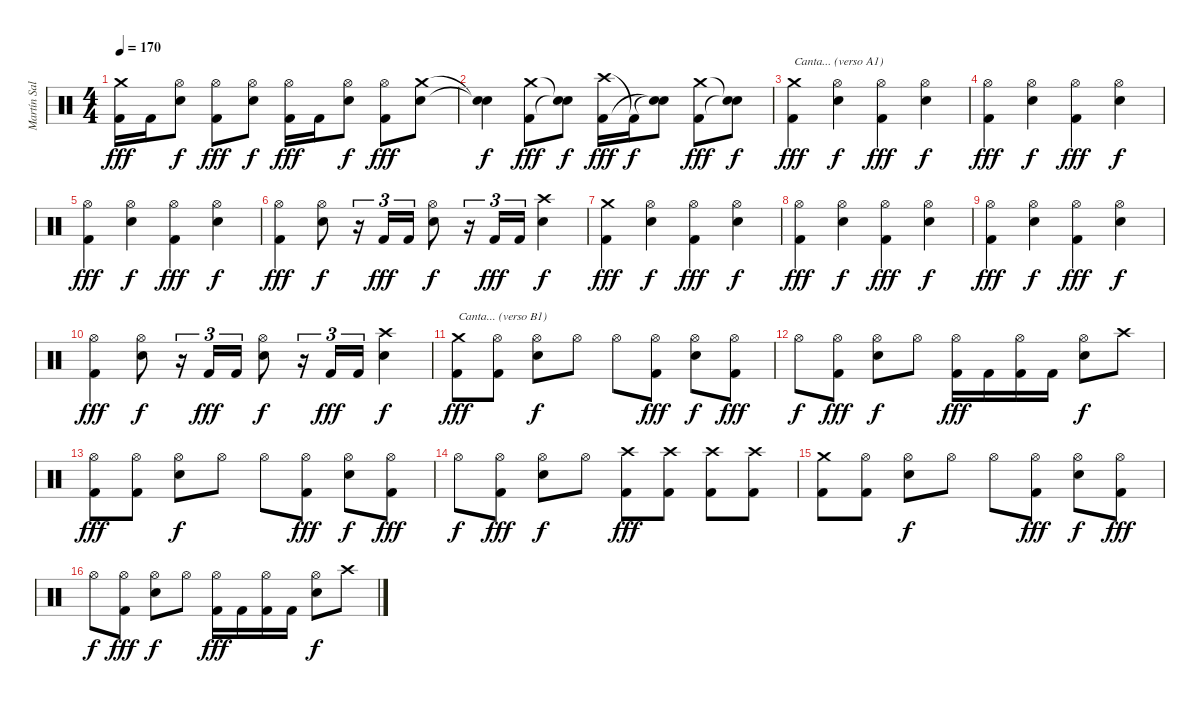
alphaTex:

\track ("Martín Salariato" "Martín Sal") {instrument percussion}
\staff {score}
\articulation defaults
\ts (4 4)
\tempo 170
\clef neutral
\ks c
("Crash medium (hit)" "Kick (hit) 2").16{dy fff} "Kick (hit) 2".16 ("Hi-Hat (open)" "Snare (hit) 2").8{dy f} ("Hi-Hat (open)" "Kick (hit) 2").8{dy fff} ("Hi-Hat (open)" "Snare (hit) 2").8{dy f} ("Hi-Hat (open)" "Kick (hit) 2").16{dy fff} "Kick (hit) 2".16 ("Hi-Hat (open)" "Snare (hit) 2").8{dy f} ("Hi-Hat (open)" "Kick (hit) 2").8{dy fff} ("Crash medium (hit)" "Snare (hit) 2").8 |
("Snare (hit)"{t} "Snare (hit) 2"{t}).4{dy f} ("Crash medium (hit)" "Kick (hit) 2").8{dy fff} ("Snare (hit)"{t} "Snare (hit)"{t}).8{dy f} ("Crash high (hit)" "Kick (hit) 2").16{dy fff} "Kick (hit) 2"{t}.16{dy f} ("Snare (hit)"{t} "Snare (hit)"{t}).8 ("Crash medium (hit)" "Kick (hit) 2").8{dy fff} ("Snare (hit)"{t} "Snare (hit)"{t}).8{dy f} |
("Crash medium (hit)" "Kick (hit) 2").4{txt "Canta... (verso A1)" dy fff} ("Hi-Hat (open)" "Snare (hit) 2").4{dy f} ("Hi-Hat (open)" "Kick (hit) 2").4{dy fff} ("Hi-Hat (open)" "Snare (hit) 2").4{dy f} |
("Hi-Hat (open)" "Kick (hit) 2").4{dy fff} ("Hi-Hat (open)" "Snare (hit) 2").4{dy f} ("Hi-Hat (open)" "Kick (hit) 2").4{dy fff} ("Hi-Hat (open)" "Snare (hit) 2").4{dy f} |
("Hi-Hat (open)" "Kick (hit) 2").4{dy fff} ("Hi-Hat (open)" "Snare (hit) 2").4{dy f} ("Hi-Hat (open)" "Kick (hit) 2").4{dy fff} ("Hi-Hat (open)" "Snare (hit) 2").4{dy f} |
("Hi-Hat (open)" "Kick (hit) 2").4{dy fff} ("Hi-Hat (open)" "Snare (hit) 2").8{dy f} r.16{tu (3 2)} "Kick (hit) 2".16{tu (3 2) dy fff} "Kick (hit) 2".16{tu (3 2)} ("Hi-Hat (open)" "Snare (hit) 2").8{dy f} r.16{tu (3 2)} "Kick (hit) 2".16{tu (3 2) dy fff} "Kick (hit) 2".16{tu (3 2)} ("Crash high (hit)" "Snare (hit) 2").4{dy f} |
("Crash medium (hit)" "Kick (hit) 2").4{dy fff} ("Hi-Hat (open)" "Snare (hit) 2").4{dy f} ("Hi-Hat (open)" "Kick (hit) 2").4{dy fff} ("Hi-Hat (open)" "Snare (hit) 2").4{dy f} |
("Hi-Hat (open)" "Kick (hit) 2").4{dy fff} ("Hi-Hat (open)" "Snare (hit) 2").4{dy f} ("Hi-Hat (open)" "Kick (hit) 2").4{dy fff} ("Hi-Hat (open)" "Snare (hit) 2").4{dy f} |
("Hi-Hat (open)" "Kick (hit) 2").4{dy fff} ("Hi-Hat (open)" "Snare (hit) 2").4{dy f} ("Hi-Hat (open)" "Kick (hit) 2").4{dy fff} ("Hi-Hat (open)" "Snare (hit) 2").4{dy f} |
("Hi-Hat (open)" "Kick (hit) 2").4{dy fff} ("Hi-Hat (open)" "Snare (hit) 2").8{dy f} r.16{tu (3 2)} "Kick (hit) 2".16{tu (3 2) dy fff} "Kick (hit) 2".16{tu (3 2)} ("Hi-Hat (open)" "Snare (hit) 2").8{dy f} r.16{tu (3 2)} "Kick (hit) 2".16{tu (3 2) dy fff} "Kick (hit) 2".16{tu (3 2)} ("Crash high (hit)" "Snare (hit) 2").4{dy f} |
("Crash medium (hit)" "Kick (hit) 2").8{txt "Canta... (verso B1)" dy fff} ("Hi-Hat (open)" "Kick (hit) 2").8 ("Hi-Hat (open)" "Snare (hit) 2").8{dy f} "Hi-Hat (open)".8 "Hi-Hat (open)".8 ("Hi-Hat (open)" "Kick (hit) 2").8{dy fff} ("Hi-Hat (open)" "Snare (hit) 2").8{dy f} ("Hi-Hat (open)" "Kick (hit) 2").8{dy fff} |
"Hi-Hat (open)".8{dy f} ("Hi-Hat (open)" "Kick (hit) 2").8{dy fff} ("Hi-Hat (open)" "Snare (hit) 2").8{dy f} "Hi-Hat (open)".8 ("Hi-Hat (open)" "Kick (hit) 2").16{dy fff} "Kick (hit) 2".16 ("Hi-Hat (open)" "Kick (hit) 2").16 "Kick (hit) 2".16 ("Hi-Hat (open)" "Snare (hit) 2").8{dy f} "Crash high (hit)".8 |
("Hi-Hat (open)" "Kick (hit) 2").8{dy fff} ("Hi-Hat (open)" "Kick (hit) 2").8 ("Hi-Hat (open)" "Snare (hit) 2").8{dy f} "Hi-Hat (open)".8 "Hi-Hat (open)".8 ("Hi-Hat (open)" "Kick (hit) 2").8{dy fff} ("Hi-Hat (open)" "Snare (hit) 2").8{dy f} ("Hi-Hat (open)" "Kick (hit) 2").8{dy fff} |
"Hi-Hat (open)".8{dy f} ("Hi-Hat (open)" "Kick (hit) 2").8{dy fff} ("Hi-Hat (open)" "Snare (hit) 2").8{dy f} "Hi-Hat (open)".8 ("Crash high (hit)" "Kick (hit) 2").8{dy fff} ("Crash high (hit)" "Kick (hit) 2").8 ("Crash high (hit)" "Kick (hit) 2").8 ("Crash high (hit)" "Kick (hit) 2").8 |
("Crash medium (hit)" "Kick (hit) 2").8 ("Hi-Hat (open)" "Kick (hit) 2").8 ("Hi-Hat (open)" "Snare (hit) 2").8{dy f} "Hi-Hat (open)".8 "Hi-Hat (open)".8 ("Hi-Hat (open)" "Kick (hit) 2").8{dy fff} ("Hi-Hat (open)" "Snare (hit) 2").8{dy f} ("Hi-Hat (open)" "Kick (hit) 2").8{dy fff} |
"Hi-Hat (open)".8{dy f} ("Hi-Hat (open)" "Kick (hit) 2").8{dy fff} ("Hi-Hat (open)" "Snare (hit) 2").8{dy f} "Hi-Hat (open)".8 ("Hi-Hat (open)" "Kick (hit) 2").16{dy fff} "Kick (hit) 2".16 ("Hi-Hat (open)" "Kick (hit) 2").16 "Kick (hit) 2".16 ("Hi-Hat (open)" "Snare (hit) 2").8{dy f} "Crash high (hit)".8
